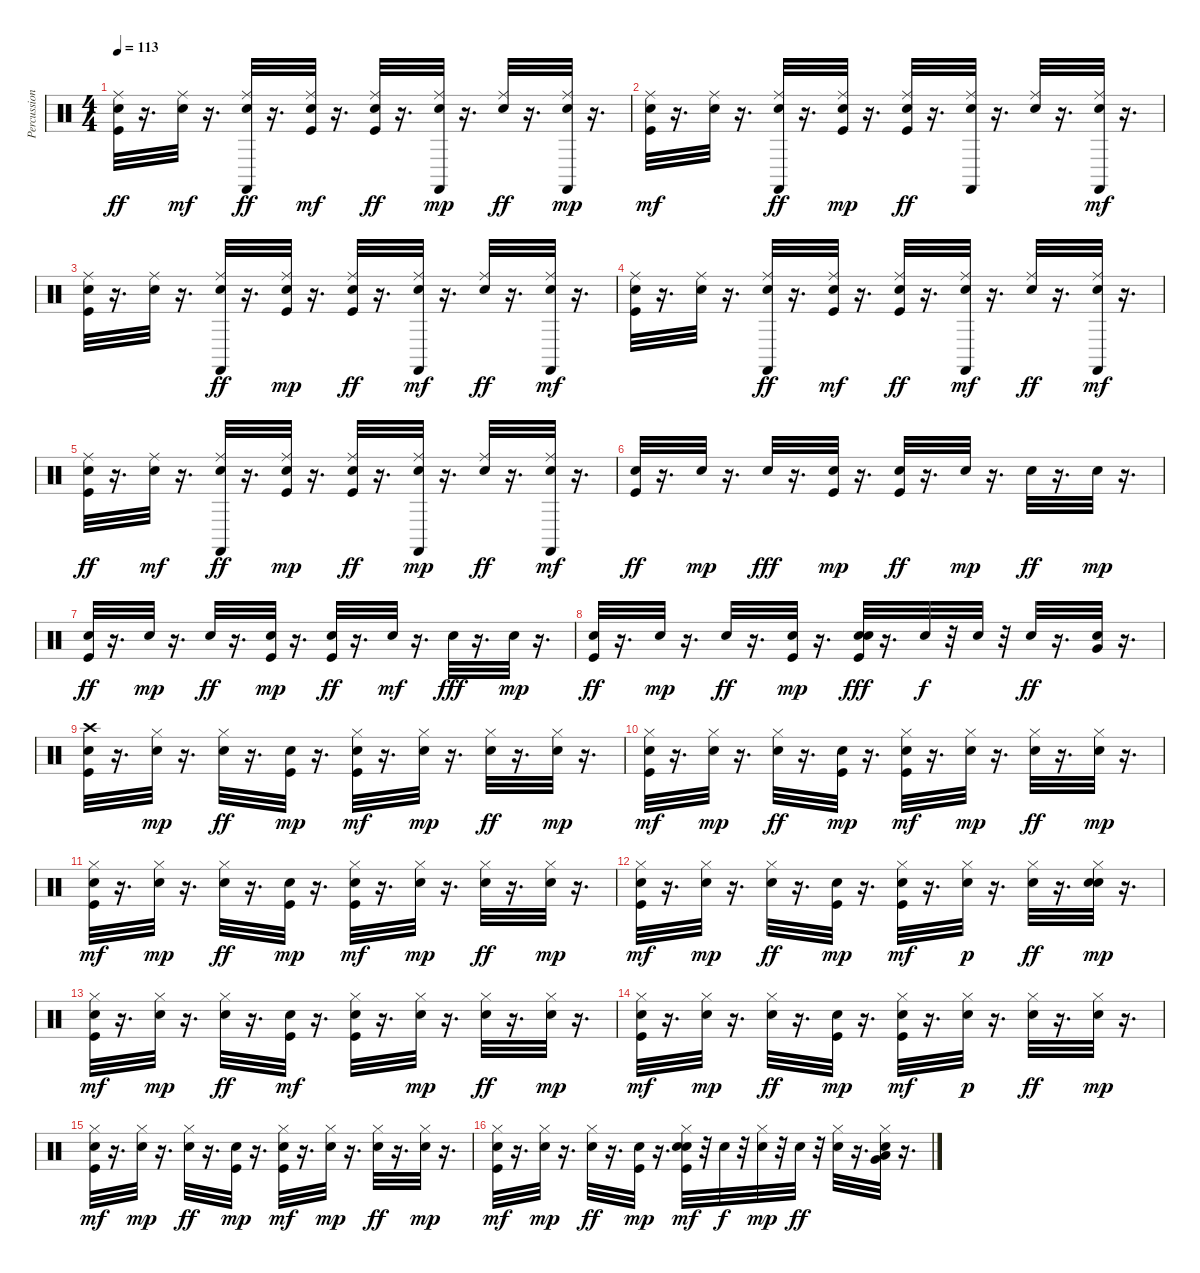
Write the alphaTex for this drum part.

\track ("Percussions" "Percussion") {instrument percussion}
\staff {score}
\articulation defaults
\ts (4 4)
\tempo 113
\clef neutral
\ks c
("Kick (hit)" "Snare (hit) 2" "Ride (middle)").32{dy ff} r.16{d} ("Snare (hit) 2" "Ride (middle)").32{dy mf} r.16{d} ("Hand Clap (hit)" "Ride (middle)" "Castanets (hit)").32{dy ff} r.16{d} ("Kick (hit)" "Snare (hit) 2" "Ride (middle)").32{dy mf} r.16{d} ("Kick (hit)" "Snare (hit) 2" "Ride (middle)").32{dy ff} r.16{d} ("Snare (hit) 2" "Ride (middle)" "Castanets (hit)").32{dy mp} r.16{d} ("Hand Clap (hit)" "Ride (middle)").32{dy ff} r.16{d} ("Snare (hit) 2" "Ride (middle)" "Castanets (hit)").32{dy mp} r.16{d} |
("Kick (hit)" "Snare (hit) 2" "Ride (middle)").32{dy mf} r.16{d} ("Snare (hit) 2" "Ride (middle)").32 r.16{d} ("Hand Clap (hit)" "Ride (middle)" "Castanets (hit)").32{dy ff} r.16{d} ("Kick (hit)" "Snare (hit) 2" "Ride (middle)").32{dy mp} r.16{d} ("Kick (hit)" "Snare (hit) 2" "Ride (middle)").32{dy ff} r.16{d} ("Snare (hit) 2" "Ride (middle)" "Castanets (hit)").32 r.16{d} ("Hand Clap (hit)" "Ride (middle)").32 r.16{d} ("Snare (hit) 2" "Ride (middle)" "Castanets (hit)").32{dy mf} r.16{d} |
("Kick (hit)" "Snare (hit) 2" "Ride (middle)").32 r.16{d} ("Snare (hit) 2" "Ride (middle)").32 r.16{d} ("Hand Clap (hit)" "Ride (middle)" "Castanets (hit)").32{dy ff} r.16{d} ("Kick (hit)" "Snare (hit) 2" "Ride (middle)").32{dy mp} r.16{d} ("Kick (hit)" "Snare (hit) 2" "Ride (middle)").32{dy ff} r.16{d} ("Snare (hit) 2" "Ride (middle)" "Castanets (hit)").32{dy mf} r.16{d} ("Hand Clap (hit)" "Ride (middle)").32{dy ff} r.16{d} ("Snare (hit) 2" "Ride (middle)" "Castanets (hit)").32{dy mf} r.16{d} |
("Kick (hit)" "Snare (hit) 2" "Ride (middle)").32 r.16{d} ("Snare (hit) 2" "Ride (middle)").32 r.16{d} ("Hand Clap (hit)" "Ride (middle)" "Castanets (hit)").32{dy ff} r.16{d} ("Kick (hit)" "Snare (hit) 2" "Ride (middle)").32{dy mf} r.16{d} ("Kick (hit)" "Snare (hit) 2" "Ride (middle)").32{dy ff} r.16{d} ("Snare (hit) 2" "Ride (middle)" "Castanets (hit)").32{dy mf} r.16{d} ("Hand Clap (hit)" "Ride (middle)").32{dy ff} r.16{d} ("Snare (hit) 2" "Ride (middle)" "Castanets (hit)").32{dy mf} r.16{d} |
("Kick (hit)" "Snare (hit) 2" "Ride (middle)").32{dy ff} r.16{d} ("Snare (hit) 2" "Ride (middle)").32{dy mf} r.16{d} ("Hand Clap (hit)" "Ride (middle)" "Castanets (hit)").32{dy ff} r.16{d} ("Kick (hit)" "Snare (hit) 2" "Ride (middle)").32{dy mp} r.16{d} ("Kick (hit)" "Snare (hit) 2" "Ride (middle)").32{dy ff} r.16{d} ("Snare (hit) 2" "Ride (middle)" "Castanets (hit)").32{dy mp} r.16{d} ("Hand Clap (hit)" "Ride (middle)").32{dy ff} r.16{d} ("Snare (hit) 2" "Ride (middle)" "Castanets (hit)").32{dy mf} r.16{d} |
("Kick (hit)" "Snare (hit) 2").32{dy ff} r.16{d} "Snare (hit) 2".32{dy mp} r.16{d} "Hand Clap (hit)".32{dy fff} r.16{d} ("Kick (hit)" "Snare (hit) 2").32{dy mp} r.16{d} ("Kick (hit)" "Snare (hit) 2").32{dy ff} r.16{d} "Snare (hit) 2".32{dy mp} r.16{d} "Hand Clap (hit)".32{dy ff} r.16{d} "Snare (hit) 2".32{dy mp} r.16{d} |
("Kick (hit)" "Snare (hit) 2").32{dy ff} r.16{d} "Snare (hit) 2".32{dy mp} r.16{d} "Hand Clap (hit)".32{dy ff} r.16{d} ("Kick (hit)" "Snare (hit) 2").32{dy mp} r.16{d} ("Kick (hit)" "Snare (hit) 2").32{dy ff} r.16{d} "Snare (hit) 2".32{dy mf} r.16{d} "Hand Clap (hit)".32{dy fff} r.16{d} "Snare (hit) 2".32{dy mp} r.16{d} |
("Kick (hit)" "Snare (hit) 2").32{dy ff} r.16{d} "Snare (hit) 2".32{dy mp} r.16{d} "Hand Clap (hit)".32{dy ff} r.16{d} ("Kick (hit)" "Snare (hit) 2").32{dy mp} r.16{d} ("Kick (hit)" "Snare (hit) 2" "Hand Clap (hit)").32{dy fff} r.16{d} "Snare (hit) 2".32{dy f} r.32 "Snare (hit) 2".32 r.32 "Hand Clap (hit)".32{dy ff} r.16{d} ("Snare (hit) 2" "Very Low Tom (hit)").32 r.16{d} |
("Kick (hit)" "Snare (hit) 2" "Crash high (hit)").32 r.16{d} ("Snare (hit) 2" "Hi-Hat (closed)").32{dy mp} r.16{d} ("Hand Clap (hit)" "Hi-Hat (closed)").32{dy ff} r.16{d} ("Kick (hit)" "Snare (hit) 2").32{dy mp} r.16{d} ("Kick (hit)" "Snare (hit) 2" "Hi-Hat (closed)").32{dy mf} r.16{d} ("Snare (hit) 2" "Hi-Hat (closed)").32{dy mp} r.16{d} ("Hand Clap (hit)" "Hi-Hat (closed)").32{dy ff} r.16{d} ("Snare (hit) 2" "Hi-Hat (closed)").32{dy mp} r.16{d} |
("Kick (hit)" "Snare (hit) 2" "Hi-Hat (closed)").32{dy mf} r.16{d} ("Snare (hit) 2" "Hi-Hat (closed)").32{dy mp} r.16{d} ("Hand Clap (hit)" "Hi-Hat (closed)").32{dy ff} r.16{d} ("Kick (hit)" "Snare (hit) 2").32{dy mp} r.16{d} ("Kick (hit)" "Snare (hit) 2" "Hi-Hat (closed)").32{dy mf} r.16{d} ("Snare (hit) 2" "Hi-Hat (closed)").32{dy mp} r.16{d} ("Hand Clap (hit)" "Hi-Hat (closed)").32{dy ff} r.16{d} ("Snare (hit) 2" "Hi-Hat (closed)").32{dy mp} r.16{d} |
("Kick (hit)" "Snare (hit) 2" "Hi-Hat (closed)").32{dy mf} r.16{d} ("Snare (hit) 2" "Hi-Hat (closed)").32{dy mp} r.16{d} ("Hand Clap (hit)" "Hi-Hat (closed)").32{dy ff} r.16{d} ("Kick (hit)" "Snare (hit) 2").32{dy mp} r.16{d} ("Kick (hit)" "Snare (hit) 2" "Hi-Hat (closed)").32{dy mf} r.16{d} ("Snare (hit) 2" "Hi-Hat (closed)").32{dy mp} r.16{d} ("Hand Clap (hit)" "Hi-Hat (closed)").32{dy ff} r.16{d} ("Snare (hit) 2" "Hi-Hat (closed)").32{dy mp} r.16{d} |
("Kick (hit)" "Snare (hit) 2" "Hi-Hat (closed)").32{dy mf} r.16{d} ("Snare (hit) 2" "Hi-Hat (closed)").32{dy mp} r.16{d} ("Hand Clap (hit)" "Hi-Hat (closed)").32{dy ff} r.16{d} ("Kick (hit)" "Snare (hit) 2").32{dy mp} r.16{d} ("Kick (hit)" "Snare (hit) 2" "Hi-Hat (closed)").32{dy mf} r.16{d} ("Snare (hit) 2" "Hi-Hat (closed)").32{dy p} r.16{d} ("Hand Clap (hit)" "Hi-Hat (closed)").32{dy ff} r.16{d} ("Snare (hit) 2" "Hand Clap (hit)" "Hi-Hat (closed)").32{dy mp} r.16{d} |
("Kick (hit)" "Snare (hit) 2" "Hi-Hat (closed)").32{dy mf} r.16{d} ("Snare (hit) 2" "Hi-Hat (closed)").32{dy mp} r.16{d} ("Hand Clap (hit)" "Hi-Hat (closed)").32{dy ff} r.16{d} ("Kick (hit)" "Snare (hit) 2").32{dy mf} r.16{d} ("Kick (hit)" "Snare (hit) 2" "Hi-Hat (closed)").32 r.16{d} ("Snare (hit) 2" "Hi-Hat (closed)").32{dy mp} r.16{d} ("Hand Clap (hit)" "Hi-Hat (closed)").32{dy ff} r.16{d} ("Snare (hit) 2" "Hi-Hat (closed)").32{dy mp} r.16{d} |
("Kick (hit)" "Snare (hit) 2" "Hi-Hat (closed)").32{dy mf} r.16{d} ("Snare (hit) 2" "Hi-Hat (closed)").32{dy mp} r.16{d} ("Hand Clap (hit)" "Hi-Hat (closed)").32{dy ff} r.16{d} ("Kick (hit)" "Snare (hit) 2").32{dy mp} r.16{d} ("Kick (hit)" "Snare (hit) 2" "Hi-Hat (closed)").32{dy mf} r.16{d} ("Snare (hit) 2" "Hi-Hat (closed)").32{dy p} r.16{d} ("Hand Clap (hit)" "Hi-Hat (closed)").32{dy ff} r.16{d} ("Snare (hit) 2" "Hi-Hat (closed)").32{dy mp} r.16{d} |
("Kick (hit)" "Snare (hit) 2" "Hi-Hat (closed)").32{dy mf} r.16{d} ("Snare (hit) 2" "Hi-Hat (closed)").32{dy mp} r.16{d} ("Hand Clap (hit)" "Hi-Hat (closed)").32{dy ff} r.16{d} ("Kick (hit)" "Snare (hit) 2").32{dy mp} r.16{d} ("Kick (hit)" "Snare (hit) 2" "Hi-Hat (closed)").32{dy mf} r.16{d} ("Snare (hit) 2" "Hi-Hat (closed)").32{dy mp} r.16{d} ("Hand Clap (hit)" "Hi-Hat (closed)").32{dy ff} r.16{d} ("Snare (hit) 2" "Hi-Hat (closed)").32{dy mp} r.16{d} |
("Kick (hit)" "Snare (hit) 2" "Hi-Hat (closed)").32{dy mf} r.16{d} ("Snare (hit) 2" "Hi-Hat (closed)").32{dy mp} r.16{d} ("Hand Clap (hit)" "Hi-Hat (closed)").32{dy ff} r.16{d} ("Kick (hit)" "Snare (hit) 2").32{dy mp} r.16{d} ("Kick (hit)" "Snare (hit) 2" "Hand Clap (hit)" "Hi-Hat (closed)").32{dy mf} r.32 "Snare (hit) 2".32{dy f} r.32 ("Snare (hit) 2" "Hi-Hat (closed)").32{dy mp} r.32 "Snare (hit) 2".32{dy ff} r.32 ("Hand Clap (hit)" "Hi-Hat (closed)").32 r.16{d} ("Snare (hit) 2" "Low Floor Tom (hit)" "Hi-Hat (closed)" "Very Low Tom (hit)").32 r.16{d}
